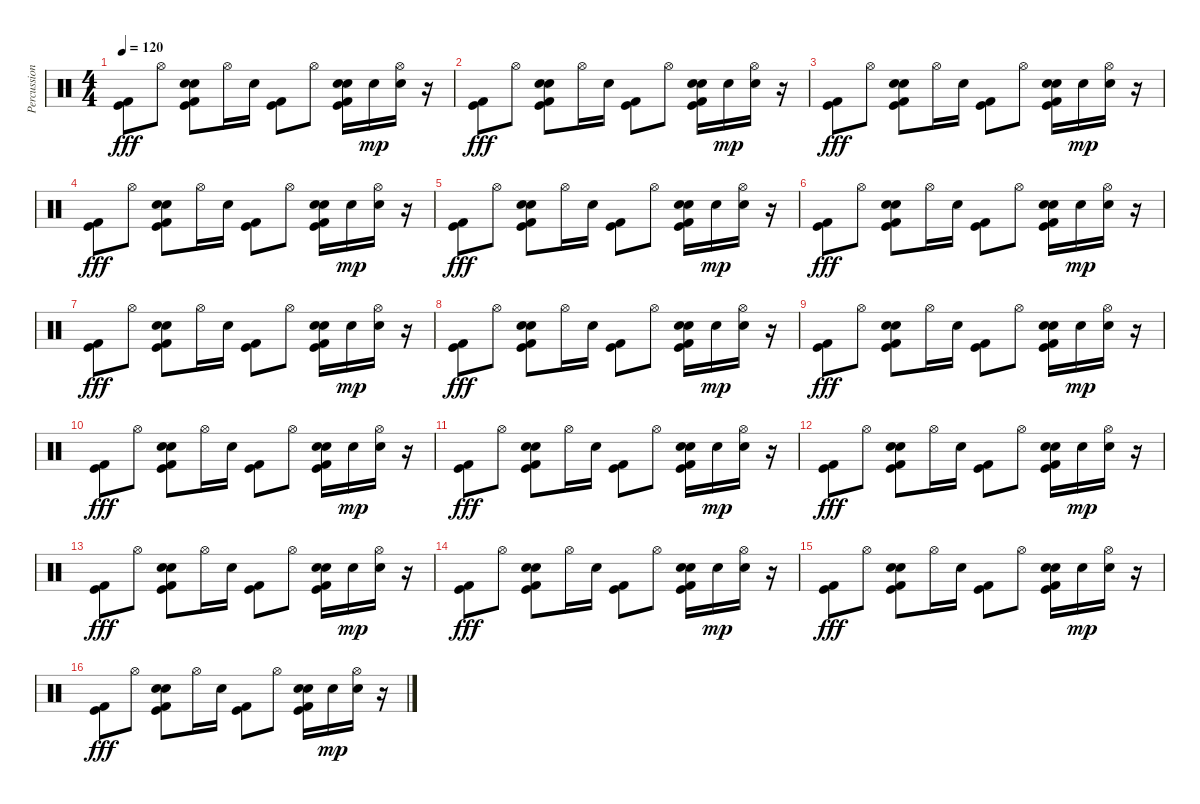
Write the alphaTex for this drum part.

\track ("Percussion" "Percussion") {instrument percussion}
\staff {score}
\articulation defaults
\ts (4 4)
\tempo 120
\clef neutral
\ks c
("Kick (hit) 2" "Kick (hit)").8{dy fff} "Hi-Hat (open)".8 ("Kick (hit) 2" "Kick (hit)" "Hand Clap (hit)" "Electric Snare (hit)").8 "Hi-Hat (open)".16 "Electric Snare (hit)".16 ("Kick (hit) 2" "Kick (hit)").8 "Hi-Hat (open)".8 ("Kick (hit) 2" "Kick (hit)" "Hand Clap (hit)" "Electric Snare (hit)").16 "Electric Snare (hit)".16{dy mp} ("Hi-Hat (open)" "Electric Snare (hit)").16 r.16 |
("Kick (hit) 2" "Kick (hit)").8{dy fff} "Hi-Hat (open)".8 ("Kick (hit) 2" "Kick (hit)" "Hand Clap (hit)" "Electric Snare (hit)").8 "Hi-Hat (open)".16 "Electric Snare (hit)".16 ("Kick (hit) 2" "Kick (hit)").8 "Hi-Hat (open)".8 ("Kick (hit) 2" "Kick (hit)" "Hand Clap (hit)" "Electric Snare (hit)").16 "Electric Snare (hit)".16{dy mp} ("Hi-Hat (open)" "Electric Snare (hit)").16 r.16 |
("Kick (hit) 2" "Kick (hit)").8{dy fff} "Hi-Hat (open)".8 ("Kick (hit) 2" "Kick (hit)" "Hand Clap (hit)" "Electric Snare (hit)").8 "Hi-Hat (open)".16 "Electric Snare (hit)".16 ("Kick (hit) 2" "Kick (hit)").8 "Hi-Hat (open)".8 ("Kick (hit) 2" "Kick (hit)" "Hand Clap (hit)" "Electric Snare (hit)").16 "Electric Snare (hit)".16{dy mp} ("Hi-Hat (open)" "Electric Snare (hit)").16 r.16 |
("Kick (hit) 2" "Kick (hit)").8{dy fff} "Hi-Hat (open)".8 ("Kick (hit) 2" "Kick (hit)" "Hand Clap (hit)" "Electric Snare (hit)").8 "Hi-Hat (open)".16 "Electric Snare (hit)".16 ("Kick (hit) 2" "Kick (hit)").8 "Hi-Hat (open)".8 ("Kick (hit) 2" "Kick (hit)" "Hand Clap (hit)" "Electric Snare (hit)").16 "Electric Snare (hit)".16{dy mp} ("Hi-Hat (open)" "Electric Snare (hit)").16 r.16 |
("Kick (hit) 2" "Kick (hit)").8{dy fff} "Hi-Hat (open)".8 ("Kick (hit) 2" "Kick (hit)" "Hand Clap (hit)" "Electric Snare (hit)").8 "Hi-Hat (open)".16 "Electric Snare (hit)".16 ("Kick (hit) 2" "Kick (hit)").8 "Hi-Hat (open)".8 ("Kick (hit) 2" "Kick (hit)" "Hand Clap (hit)" "Electric Snare (hit)").16 "Electric Snare (hit)".16{dy mp} ("Hi-Hat (open)" "Electric Snare (hit)").16 r.16 |
("Kick (hit) 2" "Kick (hit)").8{dy fff} "Hi-Hat (open)".8 ("Kick (hit) 2" "Kick (hit)" "Hand Clap (hit)" "Electric Snare (hit)").8 "Hi-Hat (open)".16 "Electric Snare (hit)".16 ("Kick (hit) 2" "Kick (hit)").8 "Hi-Hat (open)".8 ("Kick (hit) 2" "Kick (hit)" "Hand Clap (hit)" "Electric Snare (hit)").16 "Electric Snare (hit)".16{dy mp} ("Hi-Hat (open)" "Electric Snare (hit)").16 r.16 |
("Kick (hit) 2" "Kick (hit)").8{dy fff} "Hi-Hat (open)".8 ("Kick (hit) 2" "Kick (hit)" "Hand Clap (hit)" "Electric Snare (hit)").8 "Hi-Hat (open)".16 "Electric Snare (hit)".16 ("Kick (hit) 2" "Kick (hit)").8 "Hi-Hat (open)".8 ("Kick (hit) 2" "Kick (hit)" "Hand Clap (hit)" "Electric Snare (hit)").16 "Electric Snare (hit)".16{dy mp} ("Hi-Hat (open)" "Electric Snare (hit)").16 r.16 |
("Kick (hit) 2" "Kick (hit)").8{dy fff} "Hi-Hat (open)".8 ("Kick (hit) 2" "Kick (hit)" "Hand Clap (hit)" "Electric Snare (hit)").8 "Hi-Hat (open)".16 "Electric Snare (hit)".16 ("Kick (hit) 2" "Kick (hit)").8 "Hi-Hat (open)".8 ("Kick (hit) 2" "Kick (hit)" "Hand Clap (hit)" "Electric Snare (hit)").16 "Electric Snare (hit)".16{dy mp} ("Hi-Hat (open)" "Electric Snare (hit)").16 r.16 |
("Kick (hit) 2" "Kick (hit)").8{dy fff} "Hi-Hat (open)".8 ("Kick (hit) 2" "Kick (hit)" "Hand Clap (hit)" "Electric Snare (hit)").8 "Hi-Hat (open)".16 "Electric Snare (hit)".16 ("Kick (hit) 2" "Kick (hit)").8 "Hi-Hat (open)".8 ("Kick (hit) 2" "Kick (hit)" "Hand Clap (hit)" "Electric Snare (hit)").16 "Electric Snare (hit)".16{dy mp} ("Hi-Hat (open)" "Electric Snare (hit)").16 r.16 |
("Kick (hit) 2" "Kick (hit)").8{dy fff} "Hi-Hat (open)".8 ("Kick (hit) 2" "Kick (hit)" "Hand Clap (hit)" "Electric Snare (hit)").8 "Hi-Hat (open)".16 "Electric Snare (hit)".16 ("Kick (hit) 2" "Kick (hit)").8 "Hi-Hat (open)".8 ("Kick (hit) 2" "Kick (hit)" "Hand Clap (hit)" "Electric Snare (hit)").16 "Electric Snare (hit)".16{dy mp} ("Hi-Hat (open)" "Electric Snare (hit)").16 r.16 |
("Kick (hit) 2" "Kick (hit)").8{dy fff} "Hi-Hat (open)".8 ("Kick (hit) 2" "Kick (hit)" "Hand Clap (hit)" "Electric Snare (hit)").8 "Hi-Hat (open)".16 "Electric Snare (hit)".16 ("Kick (hit) 2" "Kick (hit)").8 "Hi-Hat (open)".8 ("Kick (hit) 2" "Kick (hit)" "Hand Clap (hit)" "Electric Snare (hit)").16 "Electric Snare (hit)".16{dy mp} ("Hi-Hat (open)" "Electric Snare (hit)").16 r.16 |
("Kick (hit) 2" "Kick (hit)").8{dy fff} "Hi-Hat (open)".8 ("Kick (hit) 2" "Kick (hit)" "Hand Clap (hit)" "Electric Snare (hit)").8 "Hi-Hat (open)".16 "Electric Snare (hit)".16 ("Kick (hit) 2" "Kick (hit)").8 "Hi-Hat (open)".8 ("Kick (hit) 2" "Kick (hit)" "Hand Clap (hit)" "Electric Snare (hit)").16 "Electric Snare (hit)".16{dy mp} ("Hi-Hat (open)" "Electric Snare (hit)").16 r.16 |
("Kick (hit) 2" "Kick (hit)").8{dy fff} "Hi-Hat (open)".8 ("Kick (hit) 2" "Kick (hit)" "Hand Clap (hit)" "Electric Snare (hit)").8 "Hi-Hat (open)".16 "Electric Snare (hit)".16 ("Kick (hit) 2" "Kick (hit)").8 "Hi-Hat (open)".8 ("Kick (hit) 2" "Kick (hit)" "Hand Clap (hit)" "Electric Snare (hit)").16 "Electric Snare (hit)".16{dy mp} ("Hi-Hat (open)" "Electric Snare (hit)").16 r.16 |
("Kick (hit) 2" "Kick (hit)").8{dy fff} "Hi-Hat (open)".8 ("Kick (hit) 2" "Kick (hit)" "Hand Clap (hit)" "Electric Snare (hit)").8 "Hi-Hat (open)".16 "Electric Snare (hit)".16 ("Kick (hit) 2" "Kick (hit)").8 "Hi-Hat (open)".8 ("Kick (hit) 2" "Kick (hit)" "Hand Clap (hit)" "Electric Snare (hit)").16 "Electric Snare (hit)".16{dy mp} ("Hi-Hat (open)" "Electric Snare (hit)").16 r.16 |
("Kick (hit) 2" "Kick (hit)").8{dy fff volume 10} "Hi-Hat (open)".8 ("Kick (hit) 2" "Kick (hit)" "Hand Clap (hit)" "Electric Snare (hit)").8 "Hi-Hat (open)".16 "Electric Snare (hit)".16 ("Kick (hit) 2" "Kick (hit)").8 "Hi-Hat (open)".8 ("Kick (hit) 2" "Kick (hit)" "Hand Clap (hit)" "Electric Snare (hit)").16 "Electric Snare (hit)".16{dy mp} ("Hi-Hat (open)" "Electric Snare (hit)").16 r.16 |
("Kick (hit) 2" "Kick (hit)").8{dy fff volume 7} "Hi-Hat (open)".8 ("Kick (hit) 2" "Kick (hit)" "Hand Clap (hit)" "Electric Snare (hit)").8 "Hi-Hat (open)".16 "Electric Snare (hit)".16 ("Kick (hit) 2" "Kick (hit)").8 "Hi-Hat (open)".8 ("Kick (hit) 2" "Kick (hit)" "Hand Clap (hit)" "Electric Snare (hit)").16 "Electric Snare (hit)".16{dy mp} ("Hi-Hat (open)" "Electric Snare (hit)").16 r.16
